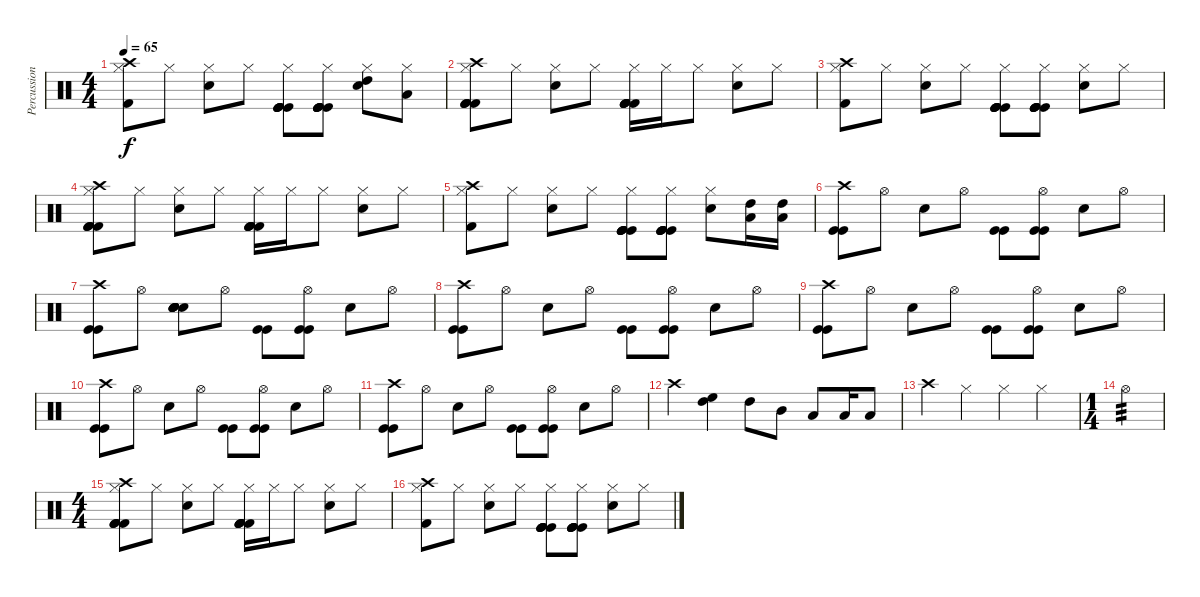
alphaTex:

\track ("Percussion" "Percussion") {instrument percussion}
\staff {score}
\articulation defaults
\ts (4 4)
\tempo 65
\clef neutral
\ks c
("Hi-Hat (closed)" "Kick (hit) 2" "Crash high (hit)").8{dy f} "Hi-Hat (closed)".8 ("Hi-Hat (closed)" "Snare (hit) 2").8 "Hi-Hat (closed)".8 ("Hi-Hat (closed)" "Kick (hit)" "Kick (hit)" "Kick (hit)" "Kick (hit)" "Kick (hit)").8 ("Hi-Hat (closed)" "Kick (hit)" "Kick (hit)" "Kick (hit)" "Kick (hit)" "Kick (hit)").8 ("Hi-Hat (closed)" "Snare (hit) 2" "High Tom (hit)").8 ("Hi-Hat (closed)" "Low Tom (hit)").8 |
("Kick (hit) 2" "Hi-Hat (closed)" "Crash high (hit)" "Kick (hit) 2" "Kick (hit) 2" "Kick (hit) 2").8 "Hi-Hat (closed)".8 ("Hi-Hat (closed)" "Snare (hit) 2").8 "Hi-Hat (closed)".8 ("Hi-Hat (closed)" "Kick (hit) 2" "Kick (hit) 2" "Kick (hit) 2" "Kick (hit) 2" "Kick (hit) 2").16 "Hi-Hat (closed)".16 "Hi-Hat (closed)".8 ("Hi-Hat (closed)" "Snare (hit) 2").8 "Hi-Hat (closed)".8 |
("Hi-Hat (closed)" "Kick (hit) 2" "Crash high (hit)").8 "Hi-Hat (closed)".8 ("Hi-Hat (closed)" "Snare (hit) 2").8 "Hi-Hat (closed)".8 ("Hi-Hat (closed)" "Kick (hit)" "Kick (hit)" "Kick (hit)" "Kick (hit)" "Kick (hit)").8 ("Hi-Hat (closed)" "Kick (hit)" "Kick (hit)" "Kick (hit)" "Kick (hit)" "Kick (hit)").8 ("Hi-Hat (closed)" "Snare (hit) 2").8 "Hi-Hat (closed)".8 |
("Kick (hit) 2" "Hi-Hat (closed)" "Crash high (hit)" "Kick (hit) 2" "Kick (hit) 2" "Kick (hit) 2").8 "Hi-Hat (closed)".8 ("Hi-Hat (closed)" "Snare (hit) 2").8 "Hi-Hat (closed)".8 ("Hi-Hat (closed)" "Kick (hit) 2" "Kick (hit) 2" "Kick (hit) 2" "Kick (hit) 2" "Kick (hit) 2").16 "Hi-Hat (closed)".16 "Hi-Hat (closed)".8 ("Hi-Hat (closed)" "Snare (hit) 2").8 "Hi-Hat (closed)".8 |
("Hi-Hat (closed)" "Kick (hit) 2" "Crash high (hit)").8 "Hi-Hat (closed)".8 ("Hi-Hat (closed)" "Snare (hit) 2").8 "Hi-Hat (closed)".8 ("Hi-Hat (closed)" "Kick (hit)" "Kick (hit)" "Kick (hit)" "Kick (hit)" "Kick (hit)").8 ("Hi-Hat (closed)" "Kick (hit)" "Kick (hit)" "Kick (hit)" "Kick (hit)" "Kick (hit)").8 ("Hi-Hat (closed)" "Snare (hit) 2").8 ("High Tom (hit)" "Low Tom (hit)").16 ("High Tom (hit)" "Low Tom (hit)").16 |
("Kick (hit)" "Kick (hit)" "Crash high (hit)").8 "Hi-Hat (open)".8 "Snare (hit) 2".8 "Hi-Hat (open)".8 ("Kick (hit)" "Kick (hit)").8 ("Kick (hit)" "Kick (hit)" "Hi-Hat (open)").8 "Snare (hit) 2".8 "Hi-Hat (open)".8 |
("Kick (hit)" "Kick (hit)" "Crash high (hit)").8 "Hi-Hat (open)".8 ("Snare (hit) 2" "Snare (hit) 2" "Snare (hit) 2" "Snare (hit) 2" "Snare (hit) 2" "Snare (hit) 2").8 "Hi-Hat (open)".8 ("Kick (hit)" "Kick (hit)").8 ("Kick (hit)" "Kick (hit)" "Hi-Hat (open)").8 "Snare (hit) 2".8 "Hi-Hat (open)".8 |
("Kick (hit)" "Kick (hit)" "Crash high (hit)").8 "Hi-Hat (open)".8 "Snare (hit) 2".8 "Hi-Hat (open)".8 ("Kick (hit)" "Kick (hit)").8 ("Kick (hit)" "Kick (hit)" "Hi-Hat (open)").8 "Snare (hit) 2".8 "Hi-Hat (open)".8 |
("Kick (hit)" "Kick (hit)" "Crash high (hit)").8 "Hi-Hat (open)".8 "Snare (hit) 2".8 "Hi-Hat (open)".8 ("Kick (hit)" "Kick (hit)").8 ("Kick (hit)" "Kick (hit)" "Hi-Hat (open)").8 "Snare (hit) 2".8 "Hi-Hat (open)".8 |
("Kick (hit)" "Kick (hit)" "Crash high (hit)").8 "Hi-Hat (open)".8 "Snare (hit) 2".8 "Hi-Hat (open)".8 ("Kick (hit)" "Kick (hit)").8 ("Kick (hit)" "Kick (hit)" "Hi-Hat (open)").8 "Snare (hit) 2".8 "Hi-Hat (open)".8 |
("Kick (hit)" "Kick (hit)" "Crash high (hit)").8 "Hi-Hat (open)".8 "Snare (hit) 2".8 "Hi-Hat (open)".8 ("Kick (hit)" "Kick (hit)").8 ("Kick (hit)" "Kick (hit)" "Hi-Hat (open)").8 "Snare (hit) 2".8 "Hi-Hat (open)".8 |
"Crash high (hit)".4 ("High Floor Tom (hit)" "High Tom (hit)").4 "High Tom (hit)".8 "Mid Tom (hit)".8 "Low Tom (hit)".8 "Low Tom (hit)".16 "Low Tom (hit)".8 |
"Crash high (hit)".4 "Hi-Hat (closed)".4 "Hi-Hat (closed)".4 "Hi-Hat (closed)".4 |
\ts (1 4)
"Hi-Hat (open)".4{tp 3} |
\ts (4 4)
("Kick (hit) 2" "Hi-Hat (closed)" "Crash high (hit)" "Kick (hit) 2" "Kick (hit) 2" "Kick (hit) 2").8 "Hi-Hat (closed)".8 ("Hi-Hat (closed)" "Snare (hit) 2").8 "Hi-Hat (closed)".8 ("Hi-Hat (closed)" "Kick (hit) 2" "Kick (hit) 2" "Kick (hit) 2" "Kick (hit) 2" "Kick (hit) 2").16 "Hi-Hat (closed)".16 "Hi-Hat (closed)".8 ("Hi-Hat (closed)" "Snare (hit) 2").8 "Hi-Hat (closed)".8 |
("Hi-Hat (closed)" "Kick (hit) 2" "Crash high (hit)").8 "Hi-Hat (closed)".8 ("Hi-Hat (closed)" "Snare (hit) 2").8 "Hi-Hat (closed)".8 ("Hi-Hat (closed)" "Kick (hit)" "Kick (hit)" "Kick (hit)" "Kick (hit)" "Kick (hit)").8 ("Hi-Hat (closed)" "Kick (hit)" "Kick (hit)" "Kick (hit)" "Kick (hit)" "Kick (hit)").8 ("Hi-Hat (closed)" "Snare (hit) 2").8 "Hi-Hat (closed)".8
